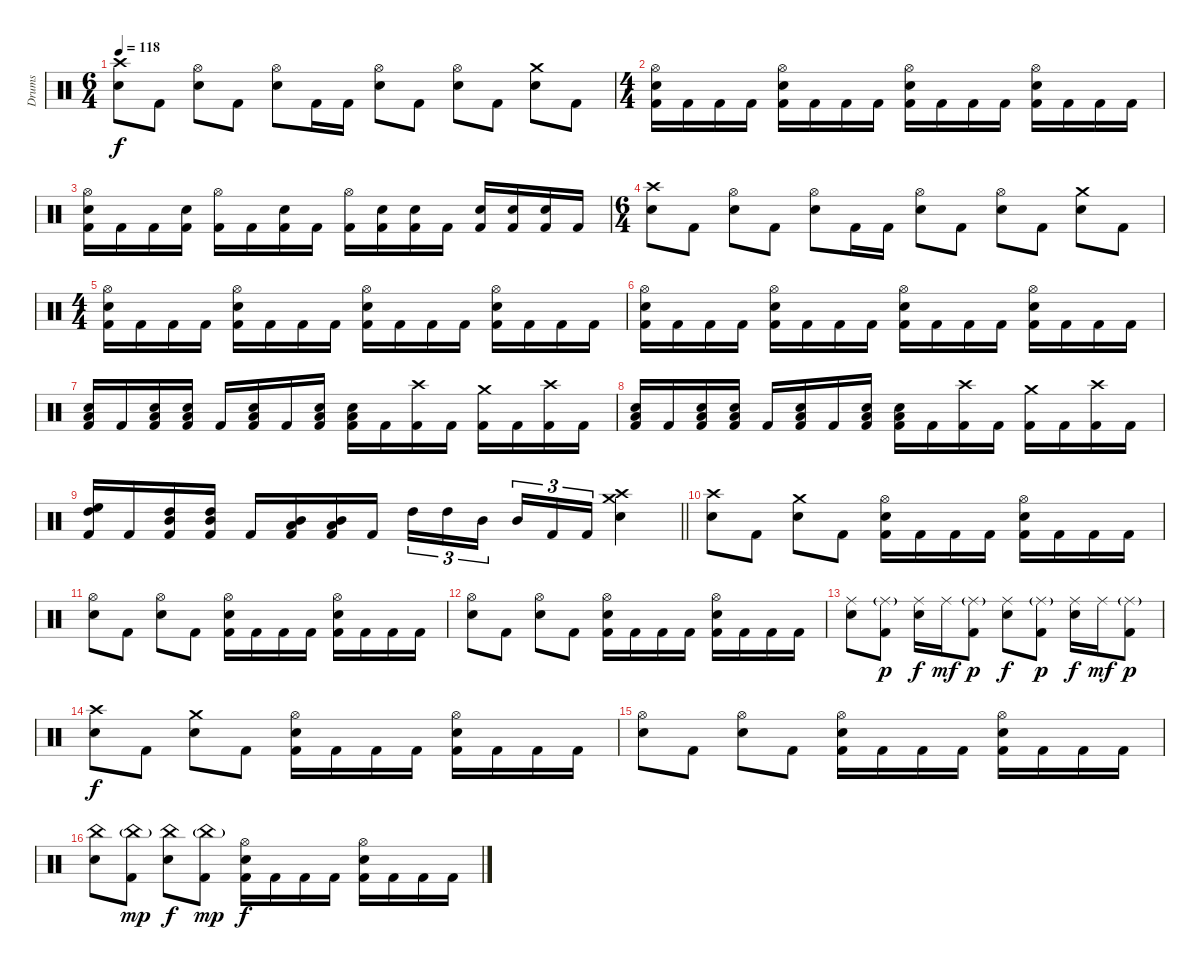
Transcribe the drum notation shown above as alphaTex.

\track ("Drums" "Drums") {instrument percussion}
\staff {score}
\articulation defaults
\ts (6 4)
\tempo 118
\clef neutral
\ks c
("Crash high (hit)" "Electric Snare (hit)").8{dy f} "Kick (hit) 2".8 ("Hi-Hat (open)" "Electric Snare (hit)").8 "Kick (hit) 2".8 ("Hi-Hat (open)" "Electric Snare (hit)").8 "Kick (hit) 2".16 "Kick (hit) 2".16 ("Hi-Hat (open)" "Electric Snare (hit)").8 "Kick (hit) 2".8 ("Hi-Hat (open)" "Electric Snare (hit)").8 "Kick (hit) 2".8 ("Crash medium (hit)" "Electric Snare (hit)").8 "Kick (hit) 2".8 |
\ts (4 4)
("Hi-Hat (open)" "Electric Snare (hit)" "Kick (hit) 2").16 "Kick (hit) 2".16 "Kick (hit) 2".16 "Kick (hit) 2".16 ("Hi-Hat (open)" "Electric Snare (hit)" "Kick (hit) 2").16 "Kick (hit) 2".16 "Kick (hit) 2".16 "Kick (hit) 2".16 ("Hi-Hat (open)" "Electric Snare (hit)" "Kick (hit) 2").16 "Kick (hit) 2".16 "Kick (hit) 2".16 "Kick (hit) 2".16 ("Hi-Hat (open)" "Electric Snare (hit)" "Kick (hit) 2").16 "Kick (hit) 2".16 "Kick (hit) 2".16 "Kick (hit) 2".16 |
("Hi-Hat (open)" "Electric Snare (hit)" "Kick (hit) 2").16 "Kick (hit) 2".16 "Kick (hit) 2".16 ("Electric Snare (hit)" "Kick (hit) 2").16 ("Hi-Hat (open)" "Kick (hit) 2").16 "Kick (hit) 2".16 ("Electric Snare (hit)" "Kick (hit) 2").16 "Kick (hit) 2".16 ("Hi-Hat (open)" "Kick (hit) 2").16 ("Electric Snare (hit)" "Kick (hit) 2").16 ("Electric Snare (hit)" "Kick (hit) 2").16 "Kick (hit) 2".16 ("Electric Snare (hit)" "Kick (hit) 2").16 ("Electric Snare (hit)" "Kick (hit) 2").16 ("Electric Snare (hit)" "Kick (hit) 2").16 "Kick (hit) 2".16 |
\ts (6 4)
("Crash high (hit)" "Electric Snare (hit)").8 "Kick (hit) 2".8 ("Hi-Hat (open)" "Electric Snare (hit)").8 "Kick (hit) 2".8 ("Hi-Hat (open)" "Electric Snare (hit)").8 "Kick (hit) 2".16 "Kick (hit) 2".16 ("Hi-Hat (open)" "Electric Snare (hit)").8 "Kick (hit) 2".8 ("Hi-Hat (open)" "Electric Snare (hit)").8 "Kick (hit) 2".8 ("Crash medium (hit)" "Electric Snare (hit)").8 "Kick (hit) 2".8 |
\ts (4 4)
("Hi-Hat (open)" "Electric Snare (hit)" "Kick (hit) 2").16 "Kick (hit) 2".16 "Kick (hit) 2".16 "Kick (hit) 2".16 ("Hi-Hat (open)" "Electric Snare (hit)" "Kick (hit) 2").16 "Kick (hit) 2".16 "Kick (hit) 2".16 "Kick (hit) 2".16 ("Hi-Hat (open)" "Electric Snare (hit)" "Kick (hit) 2").16 "Kick (hit) 2".16 "Kick (hit) 2".16 "Kick (hit) 2".16 ("Hi-Hat (open)" "Electric Snare (hit)" "Kick (hit) 2").16 "Kick (hit) 2".16 "Kick (hit) 2".16 "Kick (hit) 2".16 |
("Hi-Hat (open)" "Electric Snare (hit)" "Kick (hit) 2").16 "Kick (hit) 2".16 "Kick (hit) 2".16 "Kick (hit) 2".16 ("Hi-Hat (open)" "Electric Snare (hit)" "Kick (hit) 2").16 "Kick (hit) 2".16 "Kick (hit) 2".16 "Kick (hit) 2".16 ("Hi-Hat (open)" "Electric Snare (hit)" "Kick (hit) 2").16 "Kick (hit) 2".16 "Kick (hit) 2".16 "Kick (hit) 2".16 ("Hi-Hat (open)" "Electric Snare (hit)" "Kick (hit) 2").16 "Kick (hit) 2".16 "Kick (hit) 2".16 "Kick (hit) 2".16 |
("Low Tom (hit)" "Electric Snare (hit)" "Kick (hit) 2").16 "Kick (hit) 2".16 ("Low Tom (hit)" "Electric Snare (hit)" "Kick (hit) 2").16 ("Low Tom (hit)" "Electric Snare (hit)" "Kick (hit) 2").16 "Kick (hit) 2".16 ("Low Tom (hit)" "Electric Snare (hit)" "Kick (hit) 2").16 "Kick (hit) 2".16 ("Low Tom (hit)" "Electric Snare (hit)" "Kick (hit) 2").16 ("Low Tom (hit)" "Electric Snare (hit)" "Kick (hit) 2").16 "Kick (hit) 2".16 ("Crash high (hit)" "Kick (hit) 2").16 "Kick (hit) 2".16 ("Crash medium (hit)" "Kick (hit) 2").16 "Kick (hit) 2".16 ("Crash high (hit)" "Kick (hit) 2").16 "Kick (hit) 2".16 |
("Low Tom (hit)" "Electric Snare (hit)" "Kick (hit) 2").16 "Kick (hit) 2".16 ("Low Tom (hit)" "Electric Snare (hit)" "Kick (hit) 2").16 ("Low Tom (hit)" "Electric Snare (hit)" "Kick (hit) 2").16 "Kick (hit) 2".16 ("Low Tom (hit)" "Electric Snare (hit)" "Kick (hit) 2").16 "Kick (hit) 2".16 ("Low Tom (hit)" "Electric Snare (hit)" "Kick (hit) 2").16 ("Low Tom (hit)" "Electric Snare (hit)" "Kick (hit) 2").16 "Kick (hit) 2".16 ("Crash high (hit)" "Kick (hit) 2").16 "Kick (hit) 2".16 ("Crash medium (hit)" "Kick (hit) 2").16 "Kick (hit) 2".16 ("Crash high (hit)" "Kick (hit) 2").16 "Kick (hit) 2".16 |
\barLineRight lightlight
("High Floor Tom (hit)" "High Tom (hit)" "Kick (hit) 2").16 "Kick (hit) 2".16 ("High Tom (hit)" "Mid Tom (hit)" "Kick (hit) 2").16 ("High Tom (hit)" "Mid Tom (hit)" "Kick (hit) 2").16 "Kick (hit) 2".16 ("Mid Tom (hit)" "Low Tom (hit)" "Kick (hit) 2").16 ("Mid Tom (hit)" "Low Tom (hit)" "Kick (hit) 2").16 "Kick (hit) 2".16 "High Tom (hit)".16{tu (3 2)} "High Tom (hit)".16{tu (3 2)} "Mid Tom (hit)".16{tu (3 2)} "Mid Tom (hit)".16{tu (3 2)} "Kick (hit) 2".16{tu (3 2)} "Kick (hit) 2".16{tu (3 2)} ("Crash high (hit)" "Crash medium (hit)" "Electric Snare (hit)").4 |
("Crash high (hit)" "Electric Snare (hit)").8 "Kick (hit) 2".8 ("Crash medium (hit)" "Electric Snare (hit)").8 "Kick (hit) 2".8 ("Hi-Hat (open)" "Electric Snare (hit)" "Kick (hit) 2").16 "Kick (hit) 2".16 "Kick (hit) 2".16 "Kick (hit) 2".16 ("Hi-Hat (open)" "Electric Snare (hit)" "Kick (hit) 2").16 "Kick (hit) 2".16 "Kick (hit) 2".16 "Kick (hit) 2".16 |
("Hi-Hat (open)" "Electric Snare (hit)").8 "Kick (hit) 2".8 ("Hi-Hat (open)" "Electric Snare (hit)").8 "Kick (hit) 2".8 ("Hi-Hat (open)" "Electric Snare (hit)" "Kick (hit) 2").16 "Kick (hit) 2".16 "Kick (hit) 2".16 "Kick (hit) 2".16 ("Hi-Hat (open)" "Electric Snare (hit)" "Kick (hit) 2").16 "Kick (hit) 2".16 "Kick (hit) 2".16 "Kick (hit) 2".16 |
("Hi-Hat (open)" "Electric Snare (hit)").8 "Kick (hit) 2".8 ("Hi-Hat (open)" "Electric Snare (hit)").8 "Kick (hit) 2".8 ("Hi-Hat (open)" "Electric Snare (hit)" "Kick (hit) 2").16 "Kick (hit) 2".16 "Kick (hit) 2".16 "Kick (hit) 2".16 ("Hi-Hat (open)" "Electric Snare (hit)" "Kick (hit) 2").16 "Kick (hit) 2".16 "Kick (hit) 2".16 "Kick (hit) 2".16 |
("Ride (middle)" "Electric Snare (hit)").8 ("Ride (middle)"{g} "Kick (hit) 2").8{dy p} ("Ride (middle)" "Electric Snare (hit)").16{dy f} "Ride (middle)".16{dy mf} ("Ride (middle)"{g} "Kick (hit) 2").8{dy p} ("Ride (middle)" "Electric Snare (hit)").8{dy f} ("Ride (middle)"{g} "Kick (hit) 2").8{dy p} ("Ride (middle)" "Electric Snare (hit)").16{dy f} "Ride (middle)".16{dy mf} ("Ride (middle)"{g} "Kick (hit) 2").8{dy p} |
("Crash high (hit)" "Electric Snare (hit)").8{dy f} "Kick (hit) 2".8 ("Crash medium (hit)" "Electric Snare (hit)").8 "Kick (hit) 2".8 ("Hi-Hat (open)" "Electric Snare (hit)" "Kick (hit) 2").16 "Kick (hit) 2".16 "Kick (hit) 2".16 "Kick (hit) 2".16 ("Hi-Hat (open)" "Electric Snare (hit)" "Kick (hit) 2").16 "Kick (hit) 2".16 "Kick (hit) 2".16 "Kick (hit) 2".16 |
("Hi-Hat (open)" "Electric Snare (hit)").8 "Kick (hit) 2".8 ("Hi-Hat (open)" "Electric Snare (hit)").8 "Kick (hit) 2".8 ("Hi-Hat (open)" "Electric Snare (hit)" "Kick (hit) 2").16 "Kick (hit) 2".16 "Kick (hit) 2".16 "Kick (hit) 2".16 ("Hi-Hat (open)" "Electric Snare (hit)" "Kick (hit) 2").16 "Kick (hit) 2".16 "Kick (hit) 2".16 "Kick (hit) 2".16 |
("China (hit)" "Electric Snare (hit)").8 ("China (hit)"{g} "Kick (hit) 2").8{dy mp} ("China (hit)" "Electric Snare (hit)").8{dy f} ("China (hit)"{g} "Kick (hit) 2").8{dy mp} ("Hi-Hat (open)" "Electric Snare (hit)" "Kick (hit) 2").16{dy f} "Kick (hit) 2".16 "Kick (hit) 2".16 "Kick (hit) 2".16 ("Hi-Hat (open)" "Electric Snare (hit)" "Kick (hit) 2").16 "Kick (hit) 2".16 "Kick (hit) 2".16 "Kick (hit) 2".16
